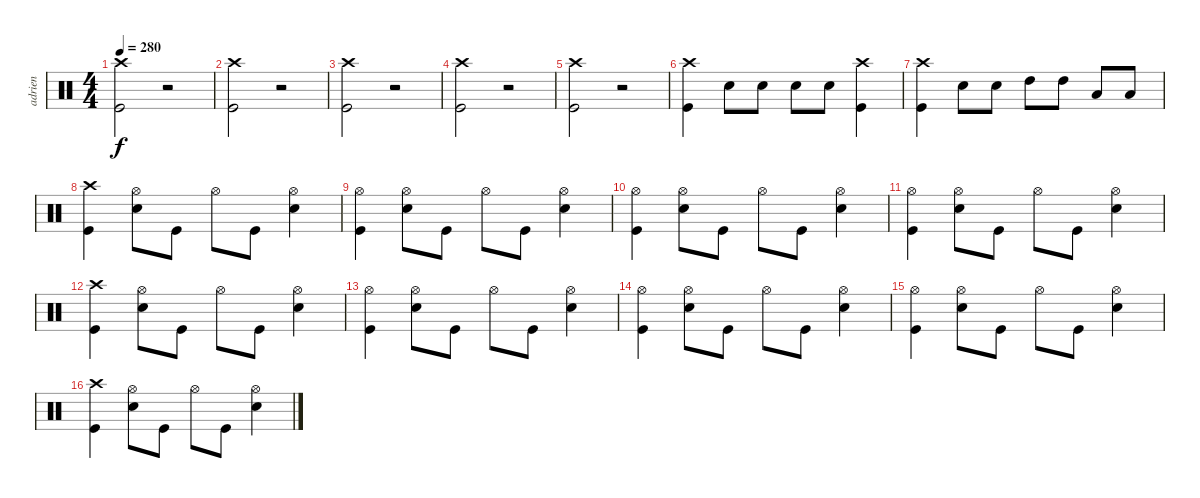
\track ("adrien" "adrien") {instrument percussion}
\staff {score}
\articulation defaults
\ts (4 4)
\tempo 280
\clef neutral
\ks c
("Crash high (hit)" "Kick (hit)").2{dy f} r.2 |
("Crash high (hit)" "Kick (hit)").2 r.2 |
("Crash high (hit)" "Kick (hit)").2 r.2 |
("Crash high (hit)" "Kick (hit)").2 r.2 |
("Crash high (hit)" "Kick (hit)").2 r.2 |
("Crash high (hit)" "Kick (hit)").4 "Snare (hit) 2".8 "Snare (hit) 2".8 "Snare (hit) 2".8 "Snare (hit) 2".8 ("Crash high (hit)" "Kick (hit)").4 |
("Crash high (hit)" "Kick (hit)").4 "Snare (hit) 2".8 "Snare (hit) 2".8 "High Tom (hit)".8 "High Tom (hit)".8 "Low Floor Tom (hit)".8 "Low Floor Tom (hit)".8 |
("Crash high (hit)" "Kick (hit)").4 ("Hi-Hat (open)" "Snare (hit) 2").8 "Kick (hit)".8 "Hi-Hat (open)".8 "Kick (hit)".8 ("Hi-Hat (open)" "Snare (hit) 2").4 |
("Hi-Hat (open)" "Kick (hit)").4 ("Hi-Hat (open)" "Snare (hit) 2").8 "Kick (hit)".8 "Hi-Hat (open)".8 "Kick (hit)".8 ("Hi-Hat (open)" "Snare (hit) 2").4 |
("Hi-Hat (open)" "Kick (hit)").4 ("Hi-Hat (open)" "Snare (hit) 2").8 "Kick (hit)".8 "Hi-Hat (open)".8 "Kick (hit)".8 ("Hi-Hat (open)" "Snare (hit) 2").4 |
("Hi-Hat (open)" "Kick (hit)").4 ("Hi-Hat (open)" "Snare (hit) 2").8 "Kick (hit)".8 "Hi-Hat (open)".8 "Kick (hit)".8 ("Hi-Hat (open)" "Snare (hit) 2").4 |
("Crash high (hit)" "Kick (hit)").4 ("Hi-Hat (open)" "Snare (hit) 2").8 "Kick (hit)".8 "Hi-Hat (open)".8 "Kick (hit)".8 ("Hi-Hat (open)" "Snare (hit) 2").4 |
("Hi-Hat (open)" "Kick (hit)").4 ("Hi-Hat (open)" "Snare (hit) 2").8 "Kick (hit)".8 "Hi-Hat (open)".8 "Kick (hit)".8 ("Hi-Hat (open)" "Snare (hit) 2").4 |
("Hi-Hat (open)" "Kick (hit)").4 ("Hi-Hat (open)" "Snare (hit) 2").8 "Kick (hit)".8 "Hi-Hat (open)".8 "Kick (hit)".8 ("Hi-Hat (open)" "Snare (hit) 2").4 |
("Hi-Hat (open)" "Kick (hit)").4 ("Hi-Hat (open)" "Snare (hit) 2").8 "Kick (hit)".8 "Hi-Hat (open)".8 "Kick (hit)".8 ("Hi-Hat (open)" "Snare (hit) 2").4 |
("Crash high (hit)" "Kick (hit)").4 ("Hi-Hat (open)" "Snare (hit) 2").8 "Kick (hit)".8 "Hi-Hat (open)".8 "Kick (hit)".8 ("Hi-Hat (open)" "Snare (hit) 2").4
